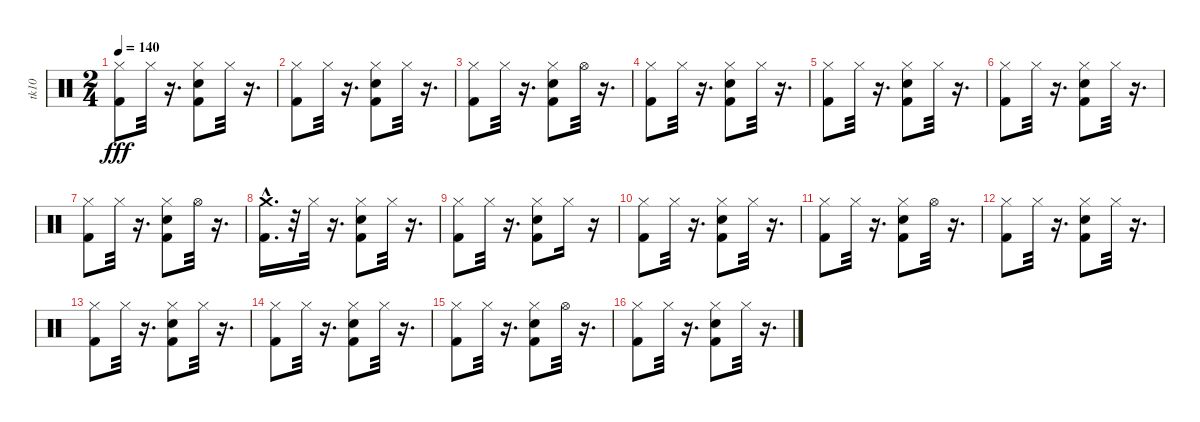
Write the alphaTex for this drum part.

\track ("tk10" "tk10") {instrument percussion}
\staff {score}
\articulation defaults
\ts (2 4)
\tempo 140
\clef neutral
\ks c
("Kick (hit) 2" "Hi-Hat (closed)").8{dy fff} "Hi-Hat (closed)".32 r.16{d} ("Snare (hit) 2" "Kick (hit) 2" "Hi-Hat (closed)").8 "Hi-Hat (closed)".32 r.16{d} |
("Kick (hit) 2" "Hi-Hat (closed)").8 "Hi-Hat (closed)".32 r.16{d} ("Snare (hit) 2" "Kick (hit) 2" "Hi-Hat (closed)").8 "Hi-Hat (closed)".32 r.16{d} |
("Kick (hit) 2" "Hi-Hat (closed)").8 "Hi-Hat (closed)".32 r.16{d} ("Snare (hit) 2" "Kick (hit) 2" "Hi-Hat (closed)").8 "Hi-Hat (open)".32 r.16{d} |
("Kick (hit) 2" "Hi-Hat (closed)").8 "Hi-Hat (closed)".32 r.16{d} ("Kick (hit) 2" "Hi-Hat (closed)" "Snare (hit) 2").8 "Hi-Hat (closed)".32 r.16{d} |
("Kick (hit) 2" "Hi-Hat (closed)").8 "Hi-Hat (closed)".32 r.16{d} ("Hi-Hat (closed)" "Snare (hit) 2" "Kick (hit) 2").8 "Hi-Hat (closed)".32 r.16{d} |
("Kick (hit) 2" "Hi-Hat (closed)").8 "Hi-Hat (closed)".32 r.16{d} ("Kick (hit) 2" "Hi-Hat (closed)" "Snare (hit) 2").8 "Hi-Hat (closed)".32 r.16{d} |
("Kick (hit) 2" "Hi-Hat (closed)").8 "Hi-Hat (closed)".32 r.16{d} ("Snare (hit) 2" "Kick (hit) 2" "Hi-Hat (closed)").8 "Hi-Hat (open)".32 r.16{d} |
("Kick (hit) 2"{hac} "Crash medium (hit)").16{d} r.32 "Hi-Hat (closed)".32 r.16{d} ("Kick (hit) 2" "Snare (hit) 2" "Hi-Hat (closed)").8 "Hi-Hat (closed)".32 r.16{d} |
("Kick (hit) 2" "Hi-Hat (closed)").8 "Hi-Hat (closed)".32 r.16{d} ("Hi-Hat (closed)" "Snare (hit) 2" "Kick (hit) 2").8 "Hi-Hat (closed)".16 r.16 |
("Kick (hit) 2" "Hi-Hat (closed)").8 "Hi-Hat (closed)".32 r.16{d} ("Snare (hit) 2" "Kick (hit) 2" "Hi-Hat (closed)").8 "Hi-Hat (closed)".32 r.16{d} |
("Kick (hit) 2" "Hi-Hat (closed)").8 "Hi-Hat (closed)".32 r.16{d} ("Snare (hit) 2" "Hi-Hat (closed)" "Kick (hit) 2").8 "Hi-Hat (open)".32 r.16{d} |
("Kick (hit) 2" "Hi-Hat (closed)").8 "Hi-Hat (closed)".32 r.16{d} ("Snare (hit) 2" "Kick (hit) 2" "Hi-Hat (closed)").8 "Hi-Hat (closed)".32 r.16{d} |
("Kick (hit) 2" "Hi-Hat (closed)").8 "Hi-Hat (closed)".32 r.16{d} ("Snare (hit) 2" "Kick (hit) 2" "Hi-Hat (closed)").8 "Hi-Hat (closed)".32 r.16{d} |
("Kick (hit) 2" "Hi-Hat (closed)").8 "Hi-Hat (closed)".32 r.16{d} ("Kick (hit) 2" "Hi-Hat (closed)" "Snare (hit) 2").8 "Hi-Hat (closed)".32 r.16{d} |
("Kick (hit) 2" "Hi-Hat (closed)").8 "Hi-Hat (closed)".32 r.16{d} ("Snare (hit) 2" "Kick (hit) 2" "Hi-Hat (closed)").8 "Hi-Hat (open)".32 r.16{d} |
("Kick (hit) 2" "Hi-Hat (closed)").8 "Hi-Hat (closed)".32 r.16{d} ("Snare (hit) 2" "Kick (hit) 2" "Hi-Hat (closed)").8 "Hi-Hat (closed)".32 r.16{d}
